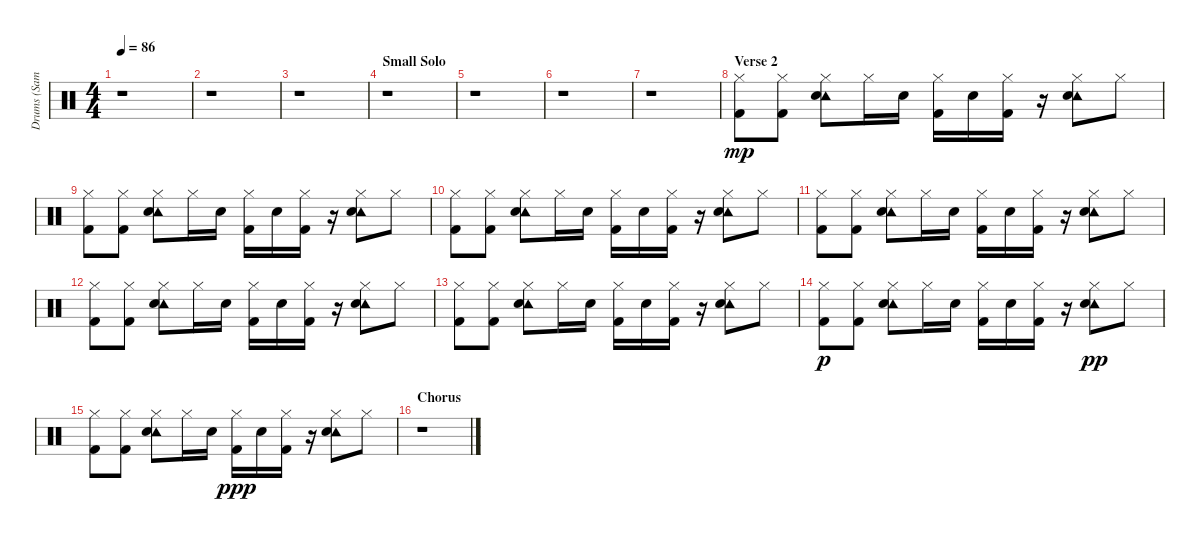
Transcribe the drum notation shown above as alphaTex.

\track ("Drums (Samples)" "Drums (Sam") {instrument percussion}
\staff {score}
\articulation defaults
\ts (4 4)
\tempo 86
\clef neutral
\ks c
r.1{dy mp} |
r.1 |
r.1 |
\section ("" "Small Solo")
r.1 |
r.1 |
r.1 |
r.1 |
\section ("" "Verse 2")
("Hi-Hat (closed)" "Kick (hit) 2").8 ("Hi-Hat (closed)" "Kick (hit) 2").8 ("Hi-Hat (closed)" "Tambourine (hit)" "Electric Snare (hit)").8 "Hi-Hat (closed)".16 "Electric Snare (hit)".16 ("Hi-Hat (closed)" "Kick (hit) 2").16 "Electric Snare (hit)".16 ("Hi-Hat (closed)" "Kick (hit) 2").16 r.16 ("Hi-Hat (closed)" "Tambourine (hit)" "Electric Snare (hit)").8 "Hi-Hat (closed)".8 |
("Hi-Hat (closed)" "Kick (hit) 2").8 ("Hi-Hat (closed)" "Kick (hit) 2").8 ("Hi-Hat (closed)" "Tambourine (hit)" "Electric Snare (hit)").8 "Hi-Hat (closed)".16 "Electric Snare (hit)".16 ("Hi-Hat (closed)" "Kick (hit) 2").16 "Electric Snare (hit)".16 ("Hi-Hat (closed)" "Kick (hit) 2").16 r.16 ("Hi-Hat (closed)" "Tambourine (hit)" "Electric Snare (hit)").8 "Hi-Hat (closed)".8 |
("Hi-Hat (closed)" "Kick (hit) 2").8 ("Hi-Hat (closed)" "Kick (hit) 2").8 ("Hi-Hat (closed)" "Tambourine (hit)" "Electric Snare (hit)").8 "Hi-Hat (closed)".16 "Electric Snare (hit)".16 ("Hi-Hat (closed)" "Kick (hit) 2").16 "Electric Snare (hit)".16 ("Hi-Hat (closed)" "Kick (hit) 2").16 r.16 ("Hi-Hat (closed)" "Tambourine (hit)" "Electric Snare (hit)").8 "Hi-Hat (closed)".8 |
("Hi-Hat (closed)" "Kick (hit) 2").8 ("Hi-Hat (closed)" "Kick (hit) 2").8 ("Hi-Hat (closed)" "Tambourine (hit)" "Electric Snare (hit)").8 "Hi-Hat (closed)".16 "Electric Snare (hit)".16 ("Hi-Hat (closed)" "Kick (hit) 2").16 "Electric Snare (hit)".16 ("Hi-Hat (closed)" "Kick (hit) 2").16 r.16 ("Hi-Hat (closed)" "Tambourine (hit)" "Electric Snare (hit)").8 "Hi-Hat (closed)".8 |
("Hi-Hat (closed)" "Kick (hit) 2").8 ("Hi-Hat (closed)" "Kick (hit) 2").8 ("Hi-Hat (closed)" "Tambourine (hit)" "Electric Snare (hit)").8 "Hi-Hat (closed)".16 "Electric Snare (hit)".16 ("Hi-Hat (closed)" "Kick (hit) 2").16 "Electric Snare (hit)".16 ("Hi-Hat (closed)" "Kick (hit) 2").16 r.16 ("Hi-Hat (closed)" "Tambourine (hit)" "Electric Snare (hit)").8 "Hi-Hat (closed)".8 |
("Hi-Hat (closed)" "Kick (hit) 2").8 ("Hi-Hat (closed)" "Kick (hit) 2").8 ("Hi-Hat (closed)" "Tambourine (hit)" "Electric Snare (hit)").8 "Hi-Hat (closed)".16 "Electric Snare (hit)".16 ("Hi-Hat (closed)" "Kick (hit) 2").16 "Electric Snare (hit)".16 ("Hi-Hat (closed)" "Kick (hit) 2").16 r.16 ("Hi-Hat (closed)" "Tambourine (hit)" "Electric Snare (hit)").8 "Hi-Hat (closed)".8 |
("Hi-Hat (closed)" "Kick (hit) 2").8{dy p} ("Hi-Hat (closed)" "Kick (hit) 2").8 ("Hi-Hat (closed)" "Tambourine (hit)" "Electric Snare (hit)").8 "Hi-Hat (closed)".16 "Electric Snare (hit)".16 ("Hi-Hat (closed)" "Kick (hit) 2").16 "Electric Snare (hit)".16 ("Hi-Hat (closed)" "Kick (hit) 2").16 r.16 ("Hi-Hat (closed)" "Tambourine (hit)" "Electric Snare (hit)").8{dy pp} "Hi-Hat (closed)".8 |
("Hi-Hat (closed)" "Kick (hit) 2").8 ("Hi-Hat (closed)" "Kick (hit) 2").8 ("Hi-Hat (closed)" "Tambourine (hit)" "Electric Snare (hit)").8 "Hi-Hat (closed)".16 "Electric Snare (hit)".16 ("Hi-Hat (closed)" "Kick (hit) 2").16{dy ppp} "Electric Snare (hit)".16 ("Hi-Hat (closed)" "Kick (hit) 2").16 r.16 ("Hi-Hat (closed)" "Tambourine (hit)" "Electric Snare (hit)").8 "Hi-Hat (closed)".8 |
\section ("" "Chorus")
r.1
